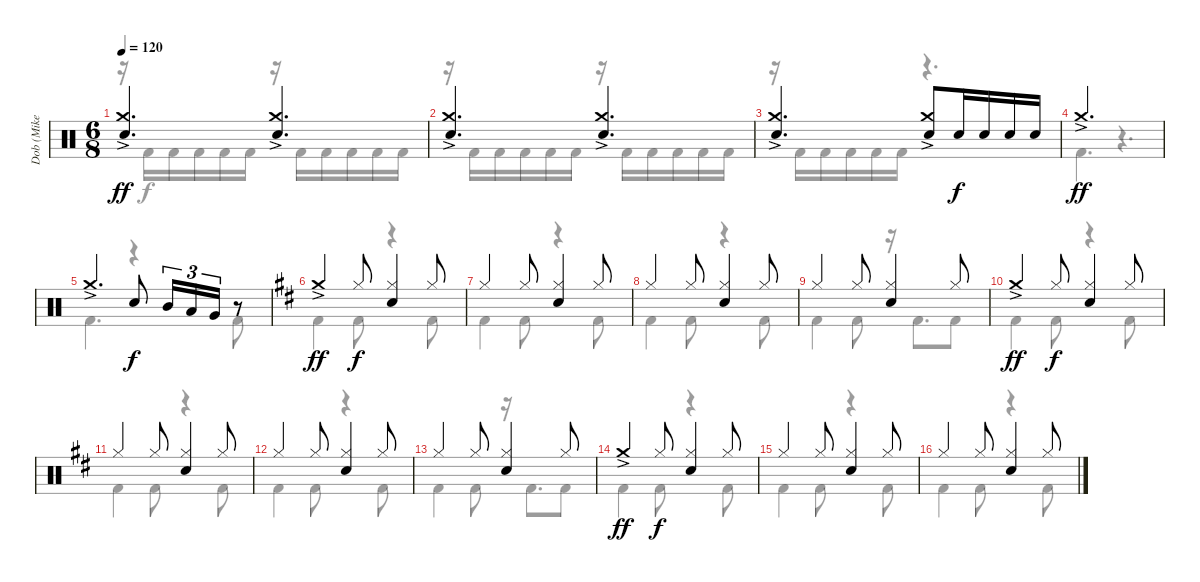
\track ("Dob (Mike Terrana)" "Dob (Mike ") {instrument percussion}
\staff {score}
\articulation defaults
\voice
\ts (6 8)
\tempo 120
\clef neutral
\ks c
("Crash medium (hit)"{ac} "Electric Snare (hit)").4{d dy ff} ("Crash medium (hit)"{ac} "Electric Snare (hit)").4{d} |
("Crash medium (hit)"{ac} "Electric Snare (hit)").4{d} ("Crash medium (hit)"{ac} "Electric Snare (hit)").4{d} |
("Crash medium (hit)"{ac} "Electric Snare (hit)").4{d} ("Crash medium (hit)"{ac} "Electric Snare (hit)").8 "Electric Snare (hit)".16{dy f} "Electric Snare (hit)".16 "Electric Snare (hit)".16 "Electric Snare (hit)".16 |
"Crash medium (hit)"{ac}.2{d dy ff} |
"Crash medium (hit)"{ac}.4{d} "Electric Snare (hit)".8{dy f} "Mid Tom (hit)".16{tu (3 2)} "Low Tom (hit)".16{tu (3 2)} "Very Low Tom (hit)".16{tu (3 2)} r.8 |
\ks d "Crash medium (hit)"{ac}.4{dy ff} "Hi-Hat (closed)".8{dy f}
("Hi-Hat (closed)" "Electric Snare (hit)").4 "Hi-Hat (closed)".8 |
"Hi-Hat (closed)".4 "Hi-Hat (closed)".8 ("Hi-Hat (closed)" "Electric Snare (hit)").4 "Hi-Hat (closed)".8 |
"Hi-Hat (closed)".4 "Hi-Hat (closed)".8 ("Hi-Hat (closed)" "Electric Snare (hit)").4 "Hi-Hat (closed)".8 |
"Hi-Hat (closed)".4 "Hi-Hat (closed)".8 ("Hi-Hat (closed)" "Electric Snare (hit)").4 "Hi-Hat (closed)".8 |
"Crash medium (hit)"{ac}.4{dy ff} "Hi-Hat (closed)".8{dy f} ("Hi-Hat (closed)" "Electric Snare (hit)").4 "Hi-Hat (closed)".8 |
"Hi-Hat (closed)".4 "Hi-Hat (closed)".8 ("Hi-Hat (closed)" "Electric Snare (hit)").4 "Hi-Hat (closed)".8 |
"Hi-Hat (closed)".4 "Hi-Hat (closed)".8 ("Hi-Hat (closed)" "Electric Snare (hit)").4 "Hi-Hat (closed)".8 |
"Hi-Hat (closed)".4 "Hi-Hat (closed)".8 ("Hi-Hat (closed)" "Electric Snare (hit)").4 "Hi-Hat (closed)".8 |
"Crash medium (hit)"{ac}.4{dy ff} "Hi-Hat (closed)".8{dy f} ("Hi-Hat (closed)" "Electric Snare (hit)").4 "Hi-Hat (closed)".8 |
"Hi-Hat (closed)".4 "Hi-Hat (closed)".8 ("Hi-Hat (closed)" "Electric Snare (hit)").4 "Hi-Hat (closed)".8 |
"Hi-Hat (closed)".4 "Hi-Hat (closed)".8 ("Hi-Hat (closed)" "Electric Snare (hit)").4 "Hi-Hat (closed)".8
\voice
\clef neutral
\ottava regular
\simile none
\ks c
r.16{dy f} "Kick (hit) 2".16 "Kick (hit) 2".16 "Kick (hit) 2".16 "Kick (hit) 2".16 "Kick (hit) 2".16 r.16 "Kick (hit) 2".16 "Kick (hit) 2".16 "Kick (hit) 2".16 "Kick (hit) 2".16 "Kick (hit) 2".16 |
r.16 "Kick (hit) 2".16 "Kick (hit) 2".16 "Kick (hit) 2".16 "Kick (hit) 2".16 "Kick (hit) 2".16 r.16 "Kick (hit) 2".16 "Kick (hit) 2".16 "Kick (hit) 2".16 "Kick (hit) 2".16 "Kick (hit) 2".16 |
r.16 "Kick (hit) 2".16 "Kick (hit) 2".16 "Kick (hit) 2".16 "Kick (hit) 2".16 "Kick (hit) 2".16 r.4{d} |
"Kick (hit) 2".4{d} r.4{d} |
"Kick (hit) 2".4{d} r.4 "Kick (hit) 2".8 |
\ks d "Kick (hit) 2".4 "Kick (hit) 2".8
r.4 "Kick (hit) 2".8 |
"Kick (hit) 2".4 "Kick (hit) 2".8 r.4 "Kick (hit) 2".8 |
"Kick (hit) 2".4 "Kick (hit) 2".8 r.4 "Kick (hit) 2".8 |
"Kick (hit) 2".4 "Kick (hit) 2".8 r.16 "Kick (hit) 2".8{d} "Kick (hit) 2".8 |
"Kick (hit) 2".4 "Kick (hit) 2".8 r.4 "Kick (hit) 2".8 |
"Kick (hit) 2".4 "Kick (hit) 2".8 r.4 "Kick (hit) 2".8 |
"Kick (hit) 2".4 "Kick (hit) 2".8 r.4 "Kick (hit) 2".8 |
"Kick (hit) 2".4 "Kick (hit) 2".8 r.16 "Kick (hit) 2".8{d} "Kick (hit) 2".8 |
"Kick (hit) 2".4 "Kick (hit) 2".8 r.4 "Kick (hit) 2".8 |
"Kick (hit) 2".4 "Kick (hit) 2".8 r.4 "Kick (hit) 2".8 |
"Kick (hit) 2".4 "Kick (hit) 2".8 r.4 "Kick (hit) 2".8
